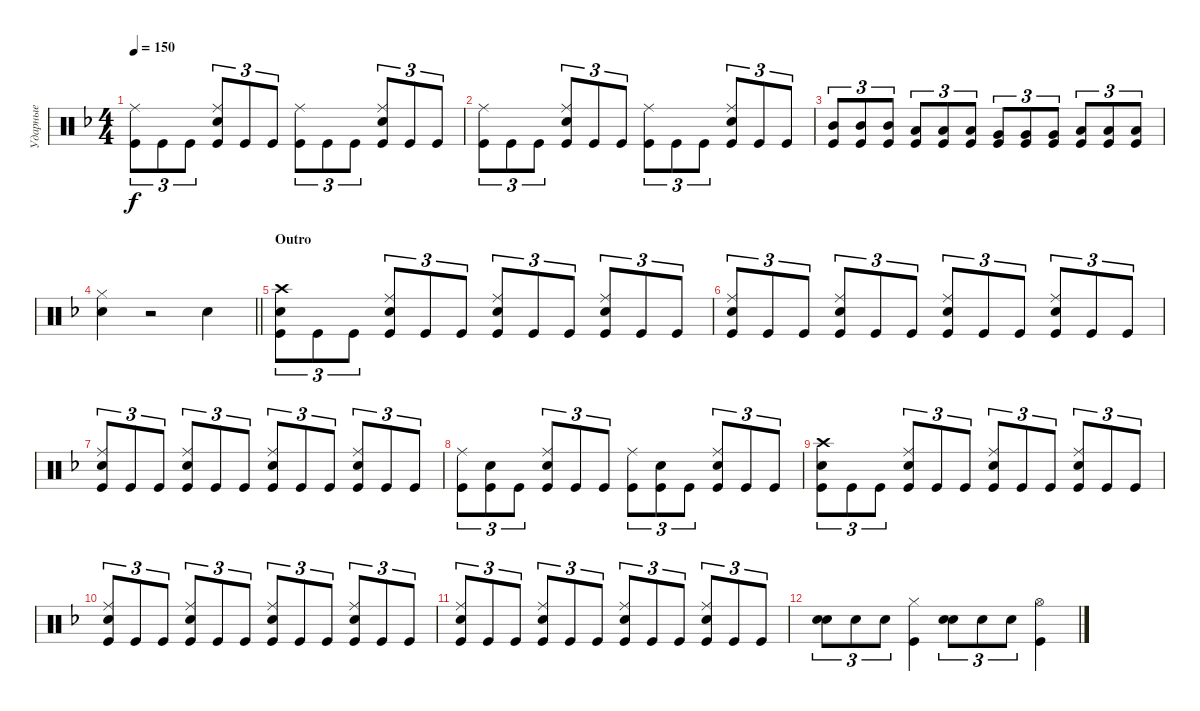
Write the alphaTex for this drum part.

\track ("Ударные" "Ударные") {instrument percussion}
\staff {score}
\articulation defaults
\ts (4 4)
\tempo 150
\clef neutral
\ks dminor
("Kick (hit)" "Ride (middle)").8{tu (3 2) dy f} "Kick (hit)".8{tu (3 2)} "Kick (hit)".8{tu (3 2)} ("Snare (hit) 2" "Kick (hit)" "Ride (middle)").8{tu (3 2)} "Kick (hit)".8{tu (3 2)} "Kick (hit)".8{tu (3 2)} ("Kick (hit)" "Ride (middle)").8{tu (3 2)} "Kick (hit)".8{tu (3 2)} "Kick (hit)".8{tu (3 2)} ("Kick (hit)" "Snare (hit) 2" "Ride (middle)").8{tu (3 2)} "Kick (hit)".8{tu (3 2)} "Kick (hit)".8{tu (3 2)} |
("Kick (hit)" "Ride (middle)").8{tu (3 2)} "Kick (hit)".8{tu (3 2)} "Kick (hit)".8{tu (3 2)} ("Snare (hit) 2" "Kick (hit)" "Ride (middle)").8{tu (3 2)} "Kick (hit)".8{tu (3 2)} "Kick (hit)".8{tu (3 2)} ("Kick (hit)" "Ride (middle)").8{tu (3 2)} "Kick (hit)".8{tu (3 2)} "Kick (hit)".8{tu (3 2)} ("Kick (hit)" "Snare (hit) 2" "Ride (middle)").8{tu (3 2)} "Kick (hit)".8{tu (3 2)} "Kick (hit)".8{tu (3 2)} |
("Mid Tom (hit)" "Kick (hit)").8{tu (3 2)} ("Mid Tom (hit)" "Kick (hit)").8{tu (3 2)} ("Mid Tom (hit)" "Kick (hit)").8{tu (3 2)} ("Low Tom (hit)" "Kick (hit)").8{tu (3 2)} ("Low Tom (hit)" "Kick (hit)").8{tu (3 2)} ("Low Tom (hit)" "Kick (hit)").8{tu (3 2)} ("Very Low Tom (hit)" "Kick (hit)").8{tu (3 2)} ("Kick (hit)" "Very Low Tom (hit)").8{tu (3 2)} ("Very Low Tom (hit)" "Kick (hit)").8{tu (3 2)} ("Low Floor Tom (hit)" "Kick (hit)").8{tu (3 2)} ("Low Floor Tom (hit)" "Kick (hit)").8{tu (3 2)} ("Low Floor Tom (hit)" "Kick (hit)").8{tu (3 2)} |
\barLineRight lightlight
("Snare (hit) 2" "Hi-Hat (closed)").4 r.2 "Snare (hit) 2".4 |
\section ("" "Outro")
("Kick (hit)" "Snare (hit) 2" "Crash high (hit)").8{tu (3 2)} "Kick (hit)".8{tu (3 2)} "Kick (hit)".8{tu (3 2)} ("Snare (hit) 2" "Kick (hit)" "Ride (middle)").8{tu (3 2)} "Kick (hit)".8{tu (3 2)} "Kick (hit)".8{tu (3 2)} ("Kick (hit)" "Ride (middle)" "Snare (hit) 2").8{tu (3 2)} "Kick (hit)".8{tu (3 2)} "Kick (hit)".8{tu (3 2)} ("Kick (hit)" "Snare (hit) 2" "Ride (middle)").8{tu (3 2)} "Kick (hit)".8{tu (3 2)} "Kick (hit)".8{tu (3 2)} |
("Kick (hit)" "Ride (middle)" "Snare (hit) 2").8{tu (3 2)} "Kick (hit)".8{tu (3 2)} "Kick (hit)".8{tu (3 2)} ("Snare (hit) 2" "Kick (hit)" "Ride (middle)").8{tu (3 2)} "Kick (hit)".8{tu (3 2)} "Kick (hit)".8{tu (3 2)} ("Kick (hit)" "Ride (middle)" "Snare (hit) 2").8{tu (3 2)} "Kick (hit)".8{tu (3 2)} "Kick (hit)".8{tu (3 2)} ("Kick (hit)" "Snare (hit) 2" "Ride (middle)").8{tu (3 2)} "Kick (hit)".8{tu (3 2)} "Kick (hit)".8{tu (3 2)} |
("Kick (hit)" "Ride (middle)" "Snare (hit) 2").8{tu (3 2)} "Kick (hit)".8{tu (3 2)} "Kick (hit)".8{tu (3 2)} ("Snare (hit) 2" "Kick (hit)" "Ride (middle)").8{tu (3 2)} "Kick (hit)".8{tu (3 2)} "Kick (hit)".8{tu (3 2)} ("Kick (hit)" "Ride (middle)" "Snare (hit) 2").8{tu (3 2)} "Kick (hit)".8{tu (3 2)} "Kick (hit)".8{tu (3 2)} ("Kick (hit)" "Snare (hit) 2" "Ride (middle)").8{tu (3 2)} "Kick (hit)".8{tu (3 2)} "Kick (hit)".8{tu (3 2)} |
("Kick (hit)" "Ride (middle)").8{tu (3 2)} ("Kick (hit)" "Snare (hit) 2").8{tu (3 2)} "Kick (hit)".8{tu (3 2)} ("Snare (hit) 2" "Kick (hit)" "Ride (middle)").8{tu (3 2)} "Kick (hit)".8{tu (3 2)} "Kick (hit)".8{tu (3 2)} ("Kick (hit)" "Ride (middle)").8{tu (3 2)} ("Kick (hit)" "Snare (hit) 2").8{tu (3 2)} "Kick (hit)".8{tu (3 2)} ("Kick (hit)" "Snare (hit) 2" "Ride (middle)").8{tu (3 2)} "Kick (hit)".8{tu (3 2)} "Kick (hit)".8{tu (3 2)} |
("Kick (hit)" "Snare (hit) 2" "Crash high (hit)").8{tu (3 2)} "Kick (hit)".8{tu (3 2)} "Kick (hit)".8{tu (3 2)} ("Snare (hit) 2" "Kick (hit)" "Ride (middle)").8{tu (3 2)} "Kick (hit)".8{tu (3 2)} "Kick (hit)".8{tu (3 2)} ("Kick (hit)" "Ride (middle)" "Snare (hit) 2").8{tu (3 2)} "Kick (hit)".8{tu (3 2)} "Kick (hit)".8{tu (3 2)} ("Kick (hit)" "Snare (hit) 2" "Ride (middle)").8{tu (3 2)} "Kick (hit)".8{tu (3 2)} "Kick (hit)".8{tu (3 2)} |
("Kick (hit)" "Ride (middle)" "Snare (hit) 2").8{tu (3 2)} "Kick (hit)".8{tu (3 2)} "Kick (hit)".8{tu (3 2)} ("Snare (hit) 2" "Kick (hit)" "Ride (middle)").8{tu (3 2)} "Kick (hit)".8{tu (3 2)} "Kick (hit)".8{tu (3 2)} ("Kick (hit)" "Ride (middle)" "Snare (hit) 2").8{tu (3 2)} "Kick (hit)".8{tu (3 2)} "Kick (hit)".8{tu (3 2)} ("Kick (hit)" "Snare (hit) 2" "Ride (middle)").8{tu (3 2)} "Kick (hit)".8{tu (3 2)} "Kick (hit)".8{tu (3 2)} |
("Kick (hit)" "Ride (middle)" "Snare (hit) 2").8{tu (3 2)} "Kick (hit)".8{tu (3 2)} "Kick (hit)".8{tu (3 2)} ("Snare (hit) 2" "Kick (hit)" "Ride (middle)").8{tu (3 2)} "Kick (hit)".8{tu (3 2)} "Kick (hit)".8{tu (3 2)} ("Kick (hit)" "Ride (middle)" "Snare (hit) 2").8{tu (3 2)} "Kick (hit)".8{tu (3 2)} "Kick (hit)".8{tu (3 2)} ("Kick (hit)" "Snare (hit) 2" "Ride (middle)").8{tu (3 2)} "Kick (hit)".8{tu (3 2)} "Kick (hit)".8{tu (3 2)} |
("Snare (hit) 2" "Snare (hit) 2").8{tu (3 2) bd 240} "Snare (hit) 2".8{tu (3 2)} "Snare (hit) 2".8{tu (3 2)} ("Kick (hit)" "Hi-Hat (closed)").4 ("Snare (hit) 2" "Snare (hit) 2").8{tu (3 2) bd 240} "Snare (hit) 2".8{tu (3 2)} "Snare (hit) 2".8{tu (3 2)} ("Kick (hit)" "Hi-Hat (open)").4
